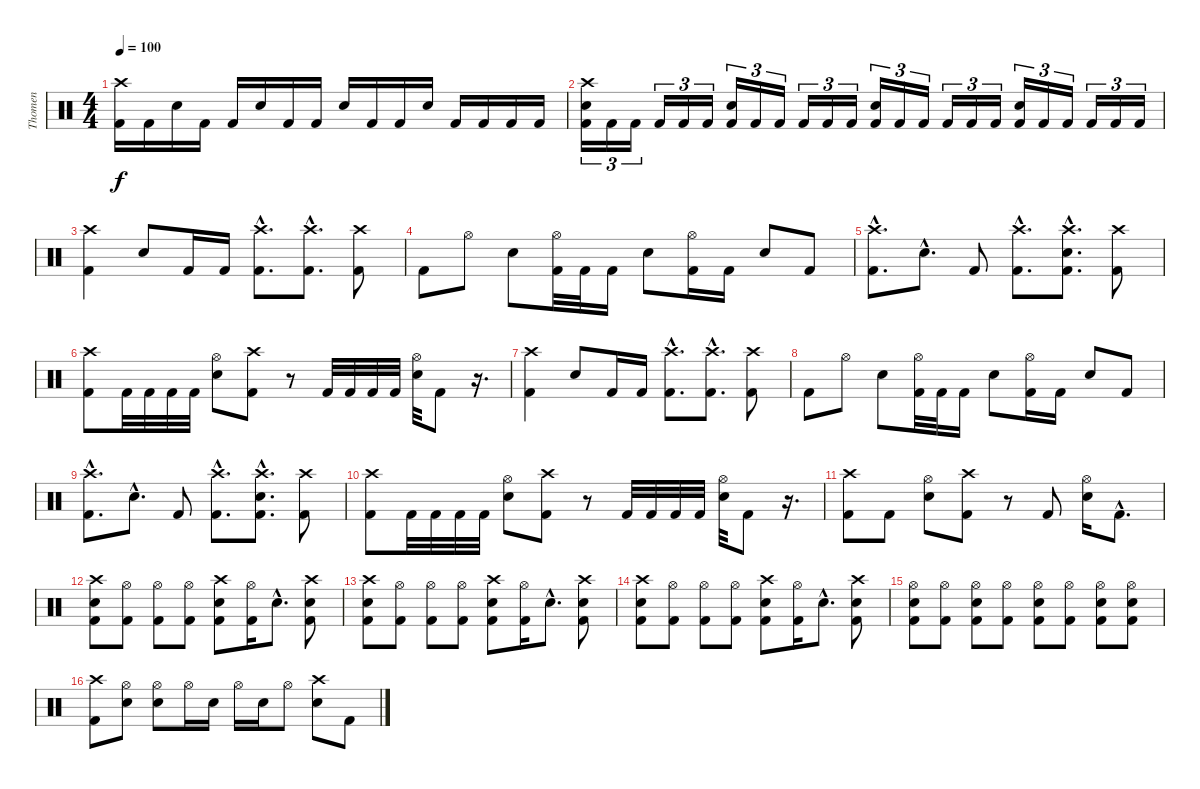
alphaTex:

\track ("Thomen" "Thomen") {instrument percussion}
\staff {score}
\articulation defaults
\ts (4 4)
\tempo 100
\clef neutral
\ks c
("Crash high (hit)" "Kick (hit) 2").16{dy f} "Kick (hit) 2".16 "Snare (hit) 2".16 "Kick (hit) 2".16 "Kick (hit) 2".16 "Snare (hit) 2".16 "Kick (hit) 2".16 "Kick (hit) 2".16 "Snare (hit) 2".16 "Kick (hit) 2".16 "Kick (hit) 2".16 "Snare (hit) 2".16 "Kick (hit) 2".16 "Kick (hit) 2".16 "Kick (hit) 2".16 "Kick (hit) 2".16 |
("Crash high (hit)" "Snare (hit) 2" "Kick (hit) 2").16{tu (3 2)} "Kick (hit) 2".16{tu (3 2)} "Kick (hit) 2".16{tu (3 2)} "Kick (hit) 2".16{tu (3 2)} "Kick (hit) 2".16{tu (3 2)} "Kick (hit) 2".16{tu (3 2)} ("Snare (hit) 2" "Kick (hit) 2").16{tu (3 2)} "Kick (hit) 2".16{tu (3 2)} "Kick (hit) 2".16{tu (3 2)} "Kick (hit) 2".16{tu (3 2)} "Kick (hit) 2".16{tu (3 2)} "Kick (hit) 2".16{tu (3 2)} ("Snare (hit) 2" "Kick (hit) 2").16{tu (3 2)} "Kick (hit) 2".16{tu (3 2)} "Kick (hit) 2".16{tu (3 2)} "Kick (hit) 2".16{tu (3 2)} "Kick (hit) 2".16{tu (3 2)} "Kick (hit) 2".16{tu (3 2)} ("Snare (hit) 2" "Kick (hit) 2").16{tu (3 2)} "Kick (hit) 2".16{tu (3 2)} "Kick (hit) 2".16{tu (3 2)} "Kick (hit) 2".16{tu (3 2)} "Kick (hit) 2".16{tu (3 2)} "Kick (hit) 2".16{tu (3 2)} |
("Crash high (hit)" "Kick (hit) 2").4 "Snare (hit) 2".8 "Kick (hit) 2".16 "Kick (hit) 2".16 ("Crash high (hit)"{hac} "Kick (hit) 2"{hac}).8{d} ("Crash high (hit)"{hac} "Kick (hit) 2"{hac}).8{d} ("Crash high (hit)" "Kick (hit) 2").8 |
"Kick (hit) 2".8 "Hi-Hat (open)".8 "Snare (hit) 2".8 ("Hi-Hat (open)" "Kick (hit) 2").32 "Kick (hit) 2".32 "Kick (hit) 2".16 "Snare (hit) 2".8 ("Hi-Hat (open)" "Kick (hit) 2").16 "Kick (hit) 2".16 "Snare (hit) 2".8 "Kick (hit) 2".8 |
("Crash high (hit)"{hac} "Kick (hit) 2"{hac}).8{d} "Snare (hit) 2"{hac}.8{d} "Kick (hit) 2".8 ("Crash high (hit)"{hac} "Kick (hit) 2"{hac}).8{d} ("Crash high (hit)"{hac} "Snare (hit) 2"{hac} "Kick (hit) 2"{hac}).8{d} ("Crash high (hit)" "Kick (hit) 2").8 |
("Crash high (hit)" "Kick (hit) 2").8 "Kick (hit) 2".32 "Kick (hit) 2".32 "Kick (hit) 2".32 "Kick (hit) 2".32 ("Hi-Hat (open)" "Snare (hit) 2").8 ("Crash high (hit)" "Kick (hit) 2").8 r.8 "Kick (hit) 2".32 "Kick (hit) 2".32 "Kick (hit) 2".32 "Kick (hit) 2".32 ("Hi-Hat (open)" "Snare (hit) 2").32 "Kick (hit) 2".8 r.16{d} |
("Crash high (hit)" "Kick (hit) 2").4 "Snare (hit) 2".8 "Kick (hit) 2".16 "Kick (hit) 2".16 ("Crash high (hit)"{hac} "Kick (hit) 2"{hac}).8{d} ("Crash high (hit)"{hac} "Kick (hit) 2"{hac}).8{d} ("Crash high (hit)" "Kick (hit) 2").8 |
"Kick (hit) 2".8 "Hi-Hat (open)".8 "Snare (hit) 2".8 ("Hi-Hat (open)" "Kick (hit) 2").32 "Kick (hit) 2".32 "Kick (hit) 2".16 "Snare (hit) 2".8 ("Hi-Hat (open)" "Kick (hit) 2").16 "Kick (hit) 2".16 "Snare (hit) 2".8 "Kick (hit) 2".8 |
("Crash high (hit)"{hac} "Kick (hit) 2"{hac}).8{d} "Snare (hit) 2"{hac}.8{d} "Kick (hit) 2".8 ("Crash high (hit)"{hac} "Kick (hit) 2"{hac}).8{d} ("Crash high (hit)"{hac} "Snare (hit) 2"{hac} "Kick (hit) 2"{hac}).8{d} ("Crash high (hit)" "Kick (hit) 2").8 |
("Crash high (hit)" "Kick (hit) 2").8 "Kick (hit) 2".32 "Kick (hit) 2".32 "Kick (hit) 2".32 "Kick (hit) 2".32 ("Hi-Hat (open)" "Snare (hit) 2").8 ("Crash high (hit)" "Kick (hit) 2").8 r.8 "Kick (hit) 2".32 "Kick (hit) 2".32 "Kick (hit) 2".32 "Kick (hit) 2".32 ("Hi-Hat (open)" "Snare (hit) 2").32 "Kick (hit) 2".8 r.16{d} |
("Crash high (hit)" "Kick (hit) 2").8 "Kick (hit) 2".8 ("Hi-Hat (open)" "Snare (hit) 2").8 ("Crash high (hit)" "Kick (hit) 2").8 r.8 "Kick (hit) 2".8 ("Hi-Hat (open)" "Snare (hit) 2").16 "Kick (hit) 2"{hac}.8{d} |
("Crash high (hit)" "Snare (hit) 2" "Kick (hit) 2").8 ("Hi-Hat (open)" "Kick (hit) 2").8 ("Hi-Hat (open)" "Kick (hit) 2").8 ("Hi-Hat (open)" "Kick (hit) 2").8 ("Crash high (hit)" "Snare (hit) 2" "Kick (hit) 2").8 ("Hi-Hat (open)" "Kick (hit) 2").16 "Snare (hit) 2"{hac}.8{d} ("Crash high (hit)" "Snare (hit) 2" "Kick (hit) 2").8 |
("Crash high (hit)" "Snare (hit) 2" "Kick (hit) 2").8 ("Hi-Hat (open)" "Kick (hit) 2").8 ("Hi-Hat (open)" "Kick (hit) 2").8 ("Hi-Hat (open)" "Kick (hit) 2").8 ("Crash high (hit)" "Snare (hit) 2" "Kick (hit) 2").8 ("Hi-Hat (open)" "Kick (hit) 2").16 "Snare (hit) 2"{hac}.8{d} ("Crash high (hit)" "Snare (hit) 2" "Kick (hit) 2").8 |
("Crash high (hit)" "Snare (hit) 2" "Kick (hit) 2").8 ("Hi-Hat (open)" "Kick (hit) 2").8 ("Hi-Hat (open)" "Kick (hit) 2").8 ("Hi-Hat (open)" "Kick (hit) 2").8 ("Crash high (hit)" "Snare (hit) 2" "Kick (hit) 2").8 ("Hi-Hat (open)" "Kick (hit) 2").16 "Snare (hit) 2"{hac}.8{d} ("Crash high (hit)" "Snare (hit) 2" "Kick (hit) 2").8 |
("Hi-Hat (open)" "Snare (hit) 2" "Kick (hit) 2").8 ("Hi-Hat (open)" "Kick (hit) 2").8 ("Hi-Hat (open)" "Snare (hit) 2" "Kick (hit) 2").8 ("Hi-Hat (open)" "Kick (hit) 2").8 ("Hi-Hat (open)" "Snare (hit) 2" "Kick (hit) 2").8 ("Hi-Hat (open)" "Kick (hit) 2").8 ("Hi-Hat (open)" "Snare (hit) 2" "Kick (hit) 2").8 ("Hi-Hat (open)" "Snare (hit) 2" "Kick (hit) 2").8 |
("Crash high (hit)" "Kick (hit) 2").8 ("Hi-Hat (open)" "Snare (hit) 2").8 ("Hi-Hat (open)" "Snare (hit) 2").8 "Hi-Hat (open)".16 "Snare (hit) 2".16 "Hi-Hat (open)".16 "Snare (hit) 2".16 "Hi-Hat (open)".8 ("Crash high (hit)" "Snare (hit) 2").8 "Kick (hit) 2".8
